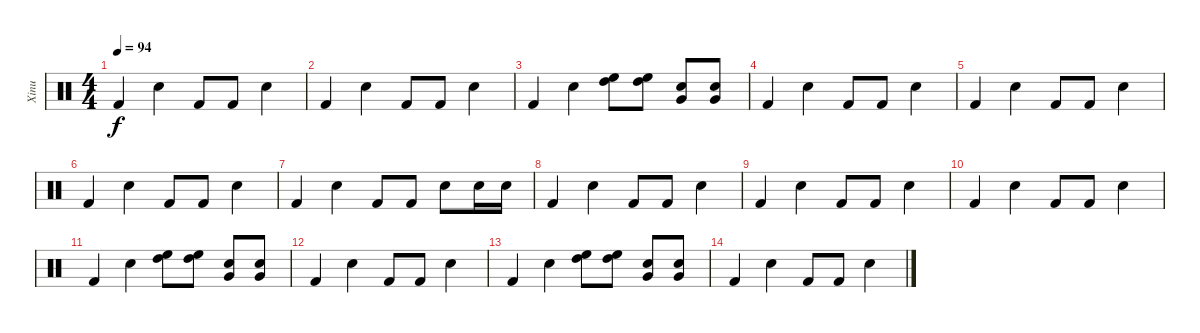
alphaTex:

\track ("Xinu" "Xinu") {instrument percussion}
\staff {score}
\articulation defaults
\ts (4 4)
\tempo 94
\clef neutral
\ks c "Kick (hit) 2".4{dy f} "Snare (hit) 2".4 "Kick (hit) 2".8 "Kick (hit) 2".8 "Snare (hit) 2".4
|
"Kick (hit) 2".4 "Snare (hit) 2".4 "Kick (hit) 2".8 "Kick (hit) 2".8 "Snare (hit) 2".4 |
"Kick (hit) 2".4 "Snare (hit) 2".4 ("High Floor Tom (hit)" "High Tom (hit)").8 ("High Floor Tom (hit)" "High Tom (hit)").8 ("Snare (hit) 2" "Very Low Tom (hit)").8 ("Snare (hit) 2" "Very Low Tom (hit)").8 |
"Kick (hit) 2".4 "Snare (hit) 2".4 "Kick (hit) 2".8 "Kick (hit) 2".8 "Snare (hit) 2".4 |
"Kick (hit) 2".4 "Snare (hit) 2".4 "Kick (hit) 2".8 "Kick (hit) 2".8 "Snare (hit) 2".4 |
"Kick (hit) 2".4 "Snare (hit) 2".4 "Kick (hit) 2".8 "Kick (hit) 2".8 "Snare (hit) 2".4 |
"Kick (hit) 2".4 "Snare (hit) 2".4 "Kick (hit) 2".8 "Kick (hit) 2".8 "Snare (hit) 2".8 "Snare (hit) 2".16 "Snare (hit) 2".16 |
"Kick (hit) 2".4 "Snare (hit) 2".4 "Kick (hit) 2".8 "Kick (hit) 2".8 "Snare (hit) 2".4 |
"Kick (hit) 2".4 "Snare (hit) 2".4 "Kick (hit) 2".8 "Kick (hit) 2".8 "Snare (hit) 2".4 |
"Kick (hit) 2".4 "Snare (hit) 2".4 "Kick (hit) 2".8 "Kick (hit) 2".8 "Snare (hit) 2".4 |
"Kick (hit) 2".4 "Snare (hit) 2".4 ("High Floor Tom (hit)" "High Tom (hit)").8 ("High Floor Tom (hit)" "High Tom (hit)").8 ("Snare (hit) 2" "Very Low Tom (hit)").8 ("Snare (hit) 2" "Very Low Tom (hit)").8 |
"Kick (hit) 2".4 "Snare (hit) 2".4 "Kick (hit) 2".8 "Kick (hit) 2".8 "Snare (hit) 2".4 |
"Kick (hit) 2".4 "Snare (hit) 2".4 ("High Floor Tom (hit)" "High Tom (hit)").8 ("High Floor Tom (hit)" "High Tom (hit)").8 ("Snare (hit) 2" "Very Low Tom (hit)").8 ("Snare (hit) 2" "Very Low Tom (hit)").8 |
"Kick (hit) 2".4 "Snare (hit) 2".4 "Kick (hit) 2".8 "Kick (hit) 2".8 "Snare (hit) 2".4
